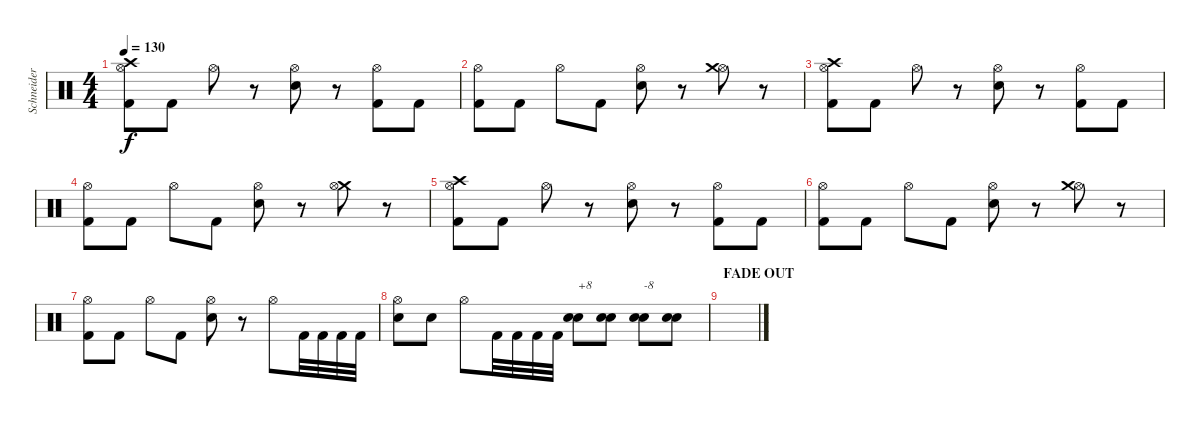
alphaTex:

\track ("Schneider - Drums" "Schneider ") {instrument percussion}
\staff {score}
\articulation defaults
\ts (4 4)
\tempo 130
\clef neutral
\ks c
("Kick (hit) 2" "Hi-Hat (open)" "Crash high (hit)").8{dy f} "Kick (hit) 2".8 "Hi-Hat (open)".8 r.8 ("Electric Snare (hit)" "Hi-Hat (open)").8 r.8 ("Kick (hit) 2" "Hi-Hat (open)").8 "Kick (hit) 2".8 |
("Kick (hit) 2" "Hi-Hat (open)").8 "Kick (hit) 2".8 "Hi-Hat (open)".8 "Kick (hit) 2".8 ("Electric Snare (hit)" "Hi-Hat (open)").8 r.8 ("Hi-Hat (open)" "Crash medium (hit)").8 r.8 |
("Kick (hit) 2" "Hi-Hat (open)" "Crash high (hit)").8 "Kick (hit) 2".8 "Hi-Hat (open)".8 r.8 ("Electric Snare (hit)" "Hi-Hat (open)").8 r.8 ("Kick (hit) 2" "Hi-Hat (open)").8 "Kick (hit) 2".8 |
("Kick (hit) 2" "Hi-Hat (open)").8 "Kick (hit) 2".8 "Hi-Hat (open)".8 "Kick (hit) 2".8 ("Electric Snare (hit)" "Hi-Hat (open)").8 r.8 ("Crash medium (hit)" "Hi-Hat (open)").8 r.8 |
("Kick (hit) 2" "Hi-Hat (open)" "Crash high (hit)").8 "Kick (hit) 2".8 "Hi-Hat (open)".8 r.8 ("Electric Snare (hit)" "Hi-Hat (open)").8 r.8 ("Kick (hit) 2" "Hi-Hat (open)").8 "Kick (hit) 2".8 |
("Kick (hit) 2" "Hi-Hat (open)").8 "Kick (hit) 2".8 "Hi-Hat (open)".8 "Kick (hit) 2".8 ("Electric Snare (hit)" "Hi-Hat (open)").8 r.8 ("Hi-Hat (open)" "Crash medium (hit)").8 r.8 |
("Kick (hit) 2" "Hi-Hat (open)").8 "Kick (hit) 2".8 "Hi-Hat (open)".8 "Kick (hit) 2".8 ("Electric Snare (hit)" "Hi-Hat (open)").8 r.8 "Hi-Hat (open)".8 "Kick (hit) 2".32 "Kick (hit) 2".32 "Kick (hit) 2".32 "Kick (hit) 2".32 |
("Electric Snare (hit)" "Hi-Hat (open)").8 "Electric Snare (hit)".8 "Hi-Hat (open)".8 "Kick (hit) 2".32 "Kick (hit) 2".32 "Kick (hit) 2".32 "Kick (hit) 2".32 ("Electric Snare (hit)" "Electric Snare (hit)").8{txt "+8" balance 16} ("Electric Snare (hit)" "Electric Snare (hit)").8 ("Electric Snare (hit)" "Electric Snare (hit)").8{txt "-8" balance 0} ("Electric Snare (hit)" "Electric Snare (hit)").8 |
\section ("" "FADE OUT")
